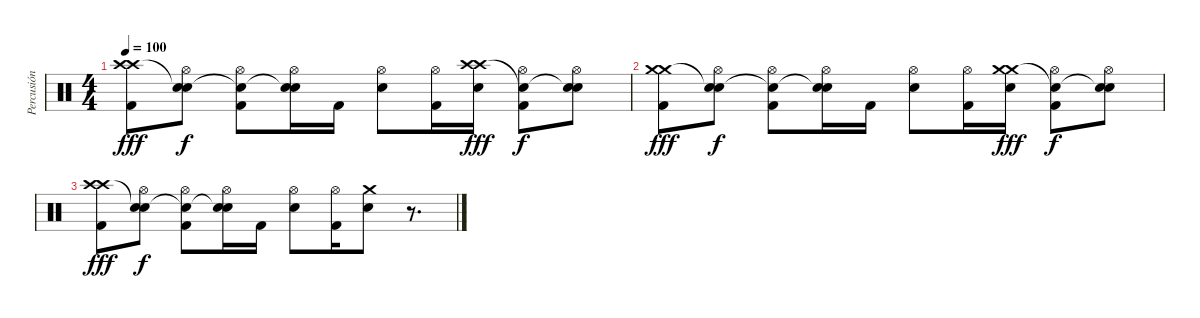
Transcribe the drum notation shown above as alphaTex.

\track ("Percusión" "Percusión") {instrument percussion}
\staff {score}
\articulation defaults
\ts (4 4)
\tempo 100
\clef neutral
\ks c
("Crash high (hit)" "Kick (hit) 2" "Crash high (hit)").8{dy fff} ("Hi-Hat (open)" "Snare (hit) 2" "Snare (hit)"{t}).8{dy f} ("Hi-Hat (open)" "Kick (hit) 2" "Snare (hit)"{t}).8 ("Hi-Hat (open)" "Snare (hit) 2" "Snare (hit)"{t}).16 "Kick (hit) 2".16 ("Hi-Hat (open)" "Snare (hit) 2").8 ("Hi-Hat (open)" "Kick (hit) 2").16 ("Crash high (hit)" "Snare (hit) 2" "Crash high (hit)").16{dy fff} ("Hi-Hat (open)" "Kick (hit) 2" "Snare (hit)"{t}).8{dy f} ("Hi-Hat (open)" "Snare (hit) 2" "Snare (hit)"{t}).8 |
("Crash medium (hit)" "Kick (hit) 2" "Crash medium (hit)").8{dy fff} ("Hi-Hat (open)" "Snare (hit) 2" "Snare (hit)"{t}).8{dy f} ("Hi-Hat (open)" "Kick (hit) 2" "Snare (hit)"{t}).8 ("Hi-Hat (open)" "Snare (hit) 2" "Snare (hit)"{t}).16 "Kick (hit) 2".16 ("Hi-Hat (open)" "Snare (hit) 2").8 ("Hi-Hat (open)" "Kick (hit) 2").16 ("Crash medium (hit)" "Snare (hit) 2" "Crash medium (hit)").16{dy fff} ("Hi-Hat (open)" "Kick (hit) 2" "Snare (hit)"{t}).8{dy f} ("Hi-Hat (open)" "Snare (hit) 2" "Snare (hit)"{t}).8 |
("Crash high (hit)" "Kick (hit) 2" "Crash high (hit)").8{dy fff} ("Hi-Hat (open)" "Snare (hit) 2" "Snare (hit)"{t}).8{dy f} ("Hi-Hat (open)" "Kick (hit) 2" "Snare (hit)"{t}).8 ("Hi-Hat (open)" "Snare (hit) 2" "Snare (hit)"{t}).16 "Kick (hit) 2".16 ("Hi-Hat (open)" "Snare (hit) 2").8 ("Hi-Hat (open)" "Kick (hit) 2").16 ("Crash medium (hit)" "Snare (hit) 2").8 r.8{d}
